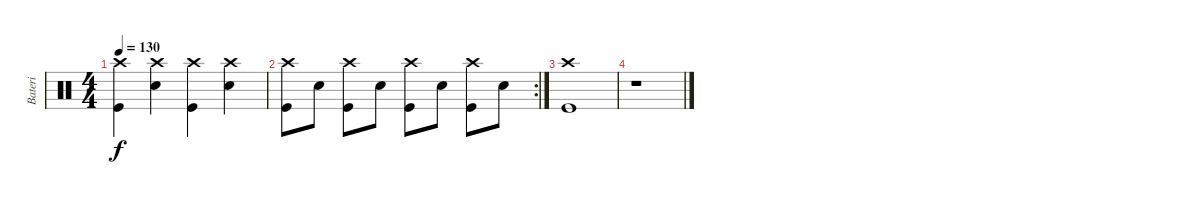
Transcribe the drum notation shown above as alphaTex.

\track ("Bateri" "Bateri") {instrument percussion}
\staff {score}
\articulation defaults
\ts (4 4)
\tempo 130
\clef neutral
\ks c
("Crash high (hit)" "Kick (hit)").4{dy f} ("Crash high (hit)" "Electric Snare (hit)").4 ("Crash high (hit)" "Kick (hit)").4 ("Crash high (hit)" "Electric Snare (hit)").4 |
\rc 2
("Crash high (hit)" "Kick (hit)").8 "Electric Snare (hit)".8 ("Crash high (hit)" "Kick (hit)").8 "Electric Snare (hit)".8 ("Crash high (hit)" "Kick (hit)").8 "Electric Snare (hit)".8 ("Crash high (hit)" "Kick (hit)").8 "Electric Snare (hit)".8 |
("Crash high (hit)" "Kick (hit)").1 |
r.1
